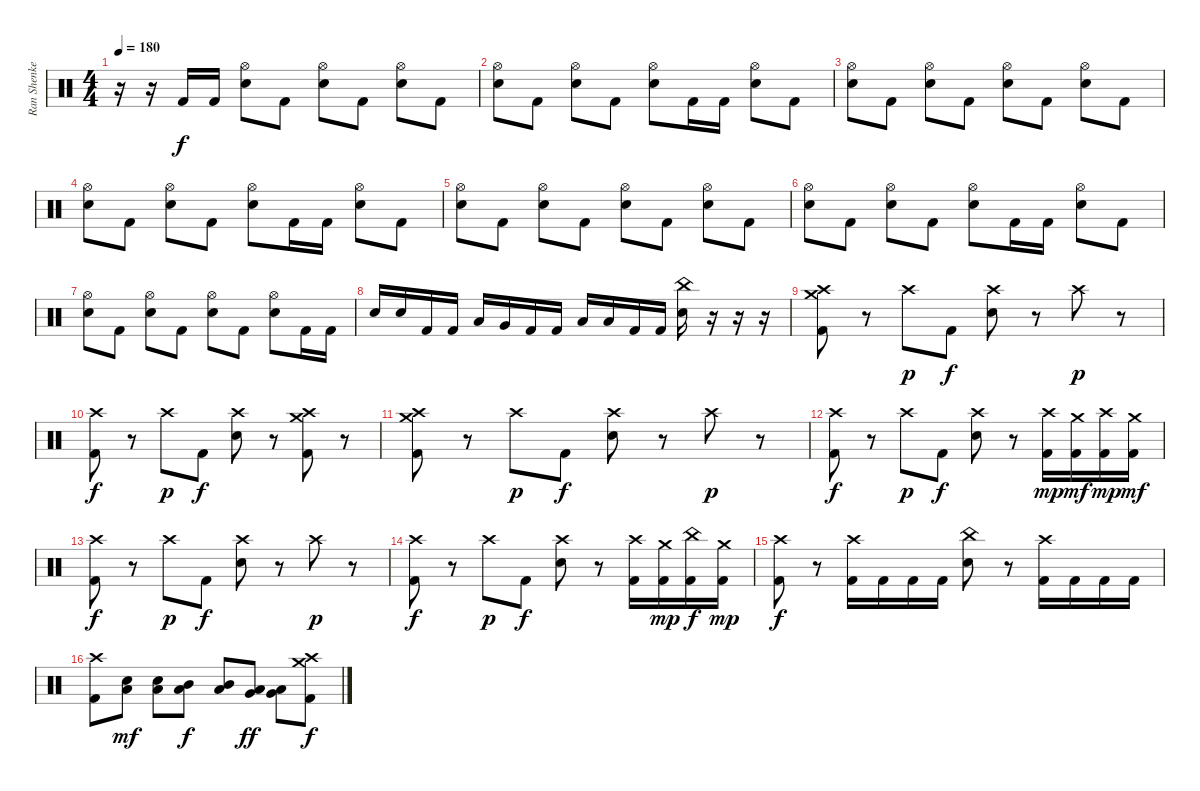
\track ("Ran Shenkerman" "Ran Shenke") {instrument percussion}
\staff {score}
\articulation defaults
\ts (4 4)
\tempo 180
\clef neutral
\ks c
r.16{dy f} r.16 "Kick (hit) 2".16 "Kick (hit) 2".16 ("Hi-Hat (open)" "Snare (hit) 2").8 "Kick (hit) 2".8 ("Hi-Hat (open)" "Snare (hit) 2").8 "Kick (hit) 2".8 ("Hi-Hat (open)" "Snare (hit) 2").8 "Kick (hit) 2".8 |
("Hi-Hat (open)" "Snare (hit) 2").8 "Kick (hit) 2".8 ("Hi-Hat (open)" "Snare (hit) 2").8 "Kick (hit) 2".8 ("Hi-Hat (open)" "Snare (hit) 2").8 "Kick (hit) 2".16 "Kick (hit) 2".16 ("Hi-Hat (open)" "Snare (hit) 2").8 "Kick (hit) 2".8 |
("Hi-Hat (open)" "Snare (hit) 2").8 "Kick (hit) 2".8 ("Hi-Hat (open)" "Snare (hit) 2").8 "Kick (hit) 2".8 ("Hi-Hat (open)" "Snare (hit) 2").8 "Kick (hit) 2".8 ("Hi-Hat (open)" "Snare (hit) 2").8 "Kick (hit) 2".8 |
("Hi-Hat (open)" "Snare (hit) 2").8 "Kick (hit) 2".8 ("Hi-Hat (open)" "Snare (hit) 2").8 "Kick (hit) 2".8 ("Hi-Hat (open)" "Snare (hit) 2").8 "Kick (hit) 2".16 "Kick (hit) 2".16 ("Hi-Hat (open)" "Snare (hit) 2").8 "Kick (hit) 2".8 |
("Hi-Hat (open)" "Snare (hit) 2").8 "Kick (hit) 2".8 ("Hi-Hat (open)" "Snare (hit) 2").8 "Kick (hit) 2".8 ("Hi-Hat (open)" "Snare (hit) 2").8 "Kick (hit) 2".8 ("Hi-Hat (open)" "Snare (hit) 2").8 "Kick (hit) 2".8 |
("Hi-Hat (open)" "Snare (hit) 2").8 "Kick (hit) 2".8 ("Hi-Hat (open)" "Snare (hit) 2").8 "Kick (hit) 2".8 ("Hi-Hat (open)" "Snare (hit) 2").8 "Kick (hit) 2".16 "Kick (hit) 2".16 ("Hi-Hat (open)" "Snare (hit) 2").8 "Kick (hit) 2".8 |
("Hi-Hat (open)" "Snare (hit) 2").8 "Kick (hit) 2".8 ("Hi-Hat (open)" "Snare (hit) 2").8 "Kick (hit) 2".8 ("Hi-Hat (open)" "Snare (hit) 2").8 "Kick (hit) 2".8 ("Hi-Hat (open)" "Snare (hit) 2").8 "Kick (hit) 2".16 "Kick (hit) 2".16 |
"Snare (hit) 2".16 "Snare (hit) 2".16 "Kick (hit) 2".16 "Kick (hit) 2".16 "Low Tom (hit)".16 "Very Low Tom (hit)".16 "Kick (hit) 2".16 "Kick (hit) 2".16 "Low Floor Tom (hit)".16 "Low Floor Tom (hit)".16 "Kick (hit) 2".16 "Kick (hit) 2".16 ("China (hit)" "Snare (hit) 2").16 r.16 r.16 r.16 |
("Crash high (hit)" "Crash medium (hit)" "Kick (hit) 2").8 r.8 "Crash high (hit)".8{dy p} "Kick (hit) 2".8{dy f} ("Crash high (hit)" "Snare (hit) 2").8 r.8 "Crash high (hit)".8{dy p} r.8 |
("Crash high (hit)" "Kick (hit) 2").8{dy f} r.8 "Crash high (hit)".8{dy p} "Kick (hit) 2".8{dy f} ("Crash high (hit)" "Snare (hit) 2").8 r.8 ("Crash medium (hit)" "Crash high (hit)" "Kick (hit) 2").8 r.8 |
("Crash high (hit)" "Crash medium (hit)" "Kick (hit) 2").8 r.8 "Crash high (hit)".8{dy p} "Kick (hit) 2".8{dy f} ("Crash high (hit)" "Snare (hit) 2").8 r.8 "Crash high (hit)".8{dy p} r.8 |
("Crash high (hit)" "Kick (hit) 2").8{dy f} r.8 "Crash high (hit)".8{dy p} "Kick (hit) 2".8{dy f} ("Crash high (hit)" "Snare (hit) 2").8 r.8 ("Crash high (hit)" "Kick (hit) 2").16{dy mp} ("Crash medium (hit)" "Kick (hit) 2").16{dy mf} ("Crash high (hit)" "Kick (hit) 2").16{dy mp} ("Crash medium (hit)" "Kick (hit) 2").16{dy mf} |
("Crash high (hit)" "Kick (hit) 2").8{dy f} r.8 "Crash high (hit)".8{dy p} "Kick (hit) 2".8{dy f} ("Crash high (hit)" "Snare (hit) 2").8 r.8 "Crash high (hit)".8{dy p} r.8 |
("Crash high (hit)" "Kick (hit) 2").8{dy f} r.8 "Crash high (hit)".8{dy p} "Kick (hit) 2".8{dy f} ("Crash high (hit)" "Snare (hit) 2").8 r.8 ("Crash high (hit)" "Kick (hit) 2").16 ("Crash medium (hit)" "Kick (hit) 2").16{dy mp} ("China (hit)" "Kick (hit) 2").16{dy f} ("Crash medium (hit)" "Kick (hit) 2").16{dy mp} |
("Crash high (hit)" "Kick (hit) 2").8{dy f} r.8 ("Crash high (hit)" "Kick (hit) 2").16 "Kick (hit) 2".16 "Kick (hit) 2".16 "Kick (hit) 2".16 ("China (hit)" "Snare (hit) 2").8 r.8 ("Crash high (hit)" "Kick (hit) 2").16 "Kick (hit) 2".16 "Kick (hit) 2".16 "Kick (hit) 2".16 |
("Crash high (hit)" "Kick (hit) 2").8 ("Snare (hit) 2" "Low Floor Tom (hit)").8{dy mf} ("Snare (hit) 2" "Low Floor Tom (hit)").8 ("Mid Tom (hit)" "Low Floor Tom (hit)").8{dy f} ("Mid Tom (hit)" "Low Floor Tom (hit)").8 ("Very Low Tom (hit)" "Low Floor Tom (hit)").8{dy ff} ("Very Low Tom (hit)" "Low Floor Tom (hit)").8 ("Crash medium (hit)" "Crash high (hit)" "Kick (hit) 2").8{dy f}
